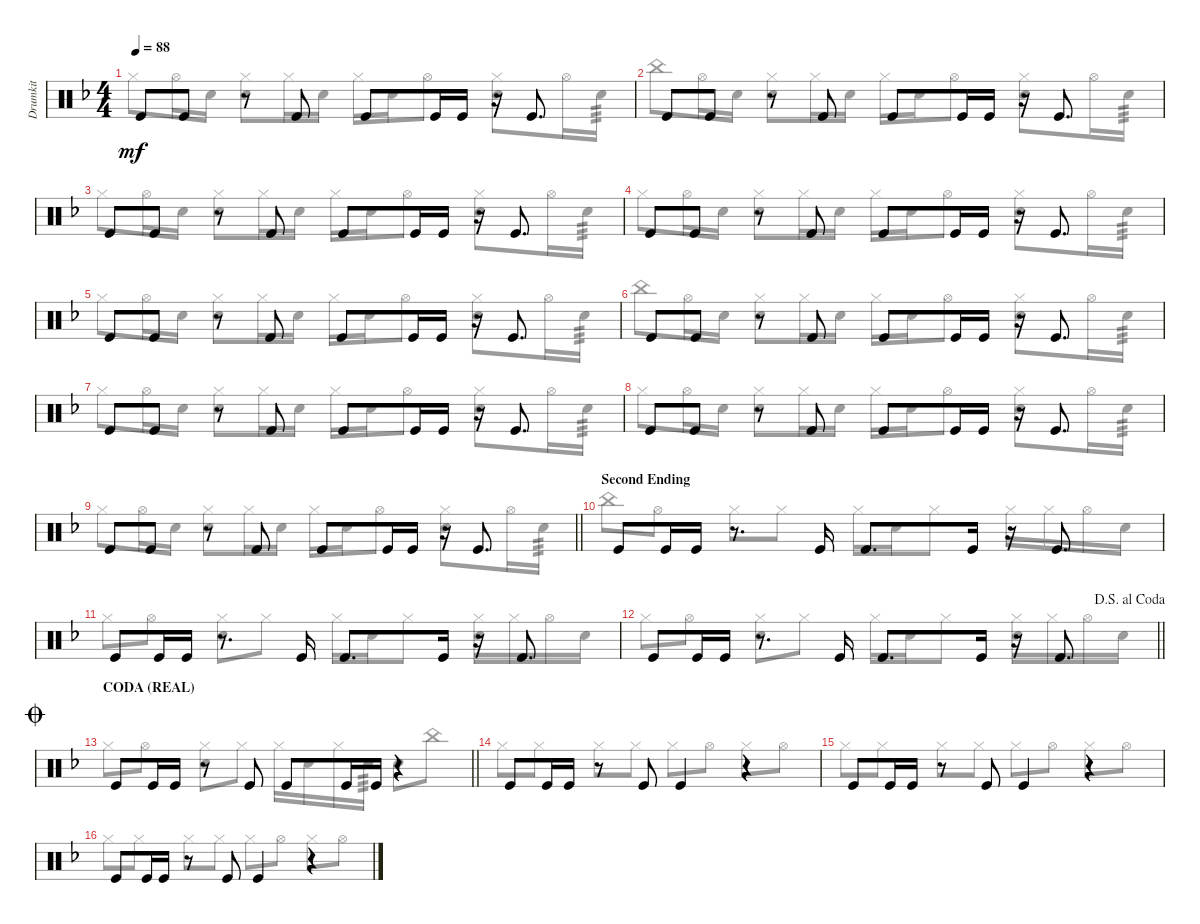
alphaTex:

\track ("Drumkit" "Drumkit") {instrument percussion}
\staff {score}
\articulation defaults
\voice
\ts (4 4)
\tempo 88
\clef neutral
\ks dminor "Kick (hit)".8{dy mf} "Kick (hit)".8
r.8 "Kick (hit)".8 "Kick (hit)".8 "Kick (hit)".16 "Kick (hit)".16 r.16 "Kick (hit)".8{d} |
"Kick (hit)".8 "Kick (hit)".8 r.8 "Kick (hit)".8 "Kick (hit)".8 "Kick (hit)".16 "Kick (hit)".16 r.16 "Kick (hit)".8{d} |
"Kick (hit)".8 "Kick (hit)".8 r.8 "Kick (hit)".8 "Kick (hit)".8 "Kick (hit)".16 "Kick (hit)".16 r.16 "Kick (hit)".8{d} |
"Kick (hit)".8 "Kick (hit)".8 r.8 "Kick (hit)".8 "Kick (hit)".8 "Kick (hit)".16 "Kick (hit)".16 r.16 "Kick (hit)".8{d} |
"Kick (hit)".8 "Kick (hit)".8 r.8 "Kick (hit)".8 "Kick (hit)".8 "Kick (hit)".16 "Kick (hit)".16 r.16 "Kick (hit)".8{d} |
"Kick (hit)".8 "Kick (hit)".8 r.8 "Kick (hit)".8 "Kick (hit)".8 "Kick (hit)".16 "Kick (hit)".16 r.16 "Kick (hit)".8{d} |
"Kick (hit)".8 "Kick (hit)".8 r.8 "Kick (hit)".8 "Kick (hit)".8 "Kick (hit)".16 "Kick (hit)".16 r.16 "Kick (hit)".8{d} |
"Kick (hit)".8 "Kick (hit)".8 r.8 "Kick (hit)".8 "Kick (hit)".8 "Kick (hit)".16 "Kick (hit)".16 r.16 "Kick (hit)".8{d} |
\barLineRight lightlight "Kick (hit)".8 "Kick (hit)".8
r.8 "Kick (hit)".8 "Kick (hit)".8 "Kick (hit)".16 "Kick (hit)".16 r.16 "Kick (hit)".8{d} |
\section ("" "Second Ending")
"Kick (hit)".8 "Kick (hit)".16 "Kick (hit)".16 r.8{d} "Kick (hit)".16 "Kick (hit)".8{d} "Kick (hit)".16 r.16 "Kick (hit)".8{d} |
"Kick (hit)".8 "Kick (hit)".16 "Kick (hit)".16 r.8{d} "Kick (hit)".16 "Kick (hit)".8{d} "Kick (hit)".16 r.16 "Kick (hit)".8{d} |
\jump dalsegnoalcoda
\barLineRight lightlight "Kick (hit)".8 "Kick (hit)".16 "Kick (hit)".16
r.8{d} "Kick (hit)".16 "Kick (hit)".8{d} "Kick (hit)".16 r.16 "Kick (hit)".8{d} |
\section ("" "CODA (REAL)")
\jump coda
\barLineRight lightlight "Kick (hit)".8 "Kick (hit)".16 "Kick (hit)".16
r.8 "Kick (hit)".8 "Kick (hit)".8 "Kick (hit)".16 "Kick (hit)".16 r.4 |
"Kick (hit)".8 "Kick (hit)".16 "Kick (hit)".16 r.8 "Kick (hit)".8 "Kick (hit)".4 r.4 |
"Kick (hit)".8 "Kick (hit)".16 "Kick (hit)".16 r.8 "Kick (hit)".8 "Kick (hit)".4 r.4 |
"Kick (hit)".8 "Kick (hit)".16 "Kick (hit)".16 r.8 "Kick (hit)".8 "Kick (hit)".4 r.4
\voice
\clef neutral
\ottava regular
\simile none
\ks dminor "Hi-Hat (closed)".8{dy mf} "Hi-Hat (open)".16 "Snare (hit) 2".16
("Snare (hit) 2" "Hi-Hat (closed)").8 "Hi-Hat (closed)".16 "Snare (hit) 2".16 "Hi-Hat (closed)".16 "Snare (hit) 2".16 "Hi-Hat (open)".8 ("Hi-Hat (closed)" "Snare (hit) 2").8 "Hi-Hat (open)".16 "Snare (hit) 2".16{tp 3} |
"China (hit)".8 "Hi-Hat (open)".16 "Snare (hit) 2".16 ("Snare (hit) 2" "Hi-Hat (closed)").8 "Hi-Hat (closed)".16 "Snare (hit) 2".16 "Hi-Hat (closed)".16 "Snare (hit) 2".16 "Hi-Hat (open)".8 ("Hi-Hat (closed)" "Snare (hit) 2").8 "Hi-Hat (open)".16 "Snare (hit) 2".16{tp 3} |
"Hi-Hat (closed)".8 "Hi-Hat (open)".16 "Snare (hit) 2".16 ("Snare (hit) 2" "Hi-Hat (closed)").8 "Hi-Hat (closed)".16 "Snare (hit) 2".16 "Hi-Hat (closed)".16 "Snare (hit) 2".16 "Hi-Hat (open)".8 ("Hi-Hat (closed)" "Snare (hit) 2").8 "Hi-Hat (open)".16 "Snare (hit) 2".16{tp 3} |
"Hi-Hat (closed)".8 "Hi-Hat (open)".16 "Snare (hit) 2".16 ("Snare (hit) 2" "Hi-Hat (closed)").8 "Hi-Hat (closed)".16 "Snare (hit) 2".16 "Hi-Hat (closed)".16 "Snare (hit) 2".16 "Hi-Hat (open)".8 ("Hi-Hat (closed)" "Snare (hit) 2").8 "Hi-Hat (open)".16 "Snare (hit) 2".16{tp 3} |
"Hi-Hat (closed)".8 "Hi-Hat (open)".16 "Snare (hit) 2".16 ("Snare (hit) 2" "Hi-Hat (closed)").8 "Hi-Hat (closed)".16 "Snare (hit) 2".16 "Hi-Hat (closed)".16 "Snare (hit) 2".16 "Hi-Hat (open)".8 ("Hi-Hat (closed)" "Snare (hit) 2").8 "Hi-Hat (open)".16 "Snare (hit) 2".16{tp 3} |
"China (hit)".8 "Hi-Hat (open)".16 "Snare (hit) 2".16 ("Snare (hit) 2" "Hi-Hat (closed)").8 "Hi-Hat (closed)".16 "Snare (hit) 2".16 "Hi-Hat (closed)".16 "Snare (hit) 2".16 "Hi-Hat (open)".8 ("Hi-Hat (closed)" "Snare (hit) 2").8 "Hi-Hat (open)".16 "Snare (hit) 2".16{tp 3} |
"Hi-Hat (closed)".8 "Hi-Hat (open)".16 "Snare (hit) 2".16 ("Snare (hit) 2" "Hi-Hat (closed)").8 "Hi-Hat (closed)".16 "Snare (hit) 2".16 "Hi-Hat (closed)".16 "Snare (hit) 2".16 "Hi-Hat (open)".8 ("Hi-Hat (closed)" "Snare (hit) 2").8 "Hi-Hat (open)".16 "Snare (hit) 2".16{tp 3} |
"Hi-Hat (closed)".8 "Hi-Hat (open)".16 "Snare (hit) 2".16 ("Snare (hit) 2" "Hi-Hat (closed)").8 "Hi-Hat (closed)".16 "Snare (hit) 2".16 "Hi-Hat (closed)".16 "Snare (hit) 2".16 "Hi-Hat (open)".8 ("Hi-Hat (closed)" "Snare (hit) 2").8 "Hi-Hat (open)".16 "Snare (hit) 2".16{tp 3} |
\barLineRight lightlight "Hi-Hat (closed)".8 "Hi-Hat (open)".16 "Snare (hit) 2".16
("Snare (hit) 2" "Hi-Hat (closed)").8 "Hi-Hat (closed)".16 "Snare (hit) 2".16 "Hi-Hat (closed)".16 "Snare (hit) 2".16 "Hi-Hat (open)".8 ("Hi-Hat (closed)" "Snare (hit) 2").8 "Hi-Hat (open)".16 "Snare (hit) 2".16{tp 3} |
"China (hit)".8 "Hi-Hat (open)".8 "Hi-Hat (closed)".8 "Hi-Hat (closed)".8 "Hi-Hat (closed)".16 "Snare (hit) 2".16 "Hi-Hat (closed)".8 "Hi-Hat (closed)".16 "Hi-Hat (closed)".16 "Hi-Hat (open)".16 "Snare (hit) 2".16 |
"Hi-Hat (closed)".8 "Hi-Hat (open)".8 ("Hi-Hat (closed)" "Snare (hit) 2").8 "Hi-Hat (closed)".8 "Hi-Hat (closed)".16 "Snare (hit) 2".16 "Hi-Hat (closed)".8 ("Hi-Hat (closed)" "Snare (hit) 2").16 "Hi-Hat (closed)".16 "Hi-Hat (open)".16 "Snare (hit) 2".16 |
\barLineRight lightlight "Hi-Hat (closed)".8 "Hi-Hat (open)".8
("Hi-Hat (closed)" "Snare (hit) 2").8 "Hi-Hat (closed)".8 "Hi-Hat (closed)".16 "Snare (hit) 2".16 "Hi-Hat (closed)".8 ("Hi-Hat (closed)" "Snare (hit) 2").16 "Hi-Hat (closed)".16 "Hi-Hat (open)".16 "Snare (hit) 2".16 |
\barLineRight lightlight "Hi-Hat (closed)".8 "Hi-Hat (open)".8
("Hi-Hat (closed)" "Snare (hit) 2").8 "Hi-Hat (closed)".8 "Hi-Hat (closed)".16 "Snare (hit) 2".16 "Hi-Hat (closed)".16 "Snare (hit) 2".16{tp 3} "Snare (hit) 2".8 "China (hit)".8 |
"Hi-Hat (closed)".8 "Hi-Hat (closed)".8 "Hi-Hat (closed)".8 "Hi-Hat (closed)".8 "Hi-Hat (closed)".8 "Hi-Hat (open)".8 "Hi-Hat (closed)".8 "Hi-Hat (open)".8 |
"Hi-Hat (closed)".8 "Hi-Hat (closed)".8 "Hi-Hat (closed)".8 "Hi-Hat (closed)".8 "Hi-Hat (closed)".8 "Hi-Hat (open)".8 "Hi-Hat (closed)".8 "Hi-Hat (open)".8 |
"Hi-Hat (closed)".8 "Hi-Hat (closed)".8 "Hi-Hat (closed)".8 "Hi-Hat (closed)".8 "Hi-Hat (closed)".8 "Hi-Hat (open)".8 "Hi-Hat (closed)".8 "Hi-Hat (open)".8
